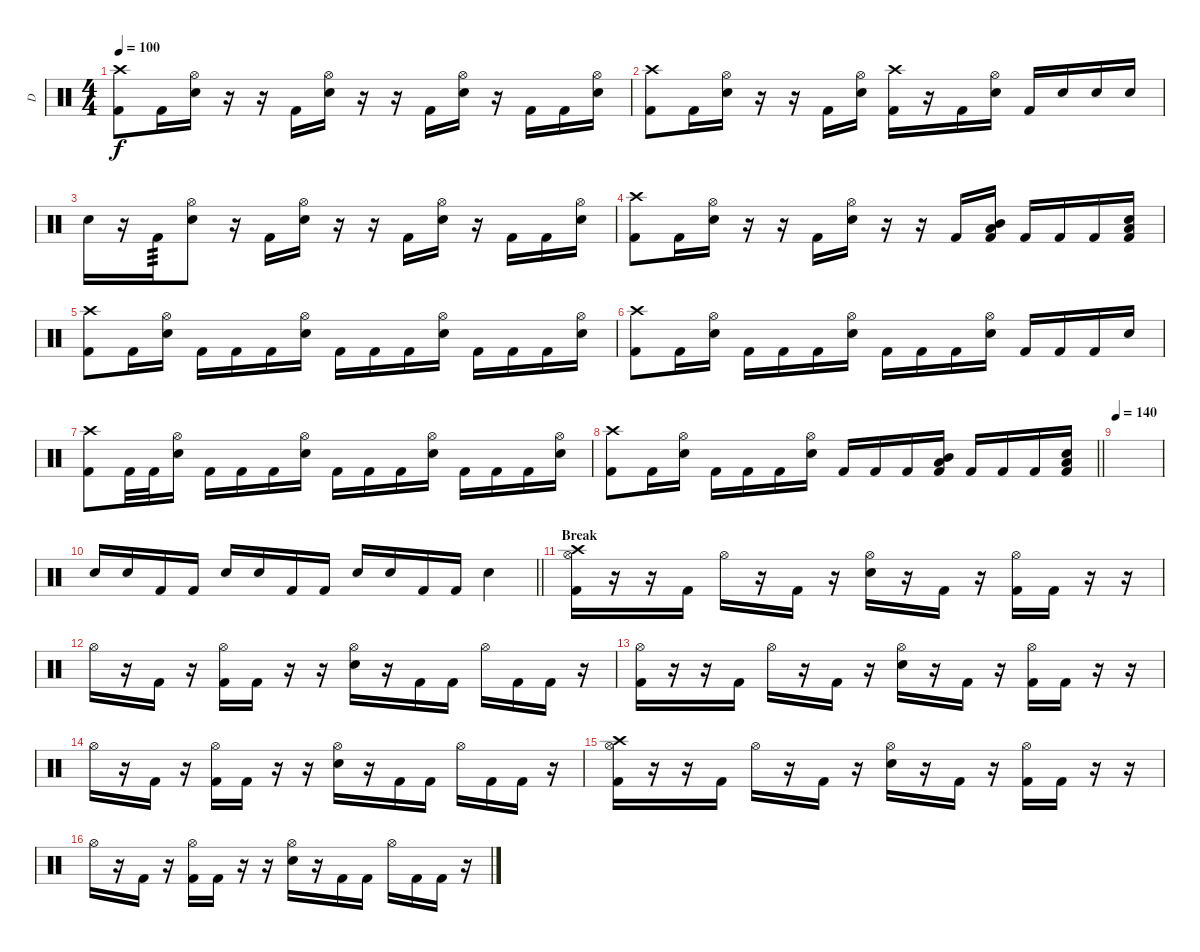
\track ("D" "D") {instrument percussion}
\staff {score}
\articulation defaults
\ts (4 4)
\tempo 100
\clef neutral
\ks c
("Crash high (hit)" "Kick (hit) 2").8{dy f} "Kick (hit) 2".16 ("Electric Snare (hit)" "Hi-Hat (open)").16 r.16 r.16 "Kick (hit) 2".16 ("Electric Snare (hit)" "Hi-Hat (open)").16 r.16 r.16 "Kick (hit) 2".16 ("Electric Snare (hit)" "Hi-Hat (open)").16 r.16 "Kick (hit) 2".16 "Kick (hit) 2".16 ("Electric Snare (hit)" "Hi-Hat (open)").16 |
("Crash high (hit)" "Kick (hit) 2").8 "Kick (hit) 2".16 ("Electric Snare (hit)" "Hi-Hat (open)").16 r.16 r.16 "Kick (hit) 2".16 ("Electric Snare (hit)" "Hi-Hat (open)").16 ("Crash high (hit)" "Kick (hit) 2").16 r.16 "Kick (hit) 2".16 ("Electric Snare (hit)" "Hi-Hat (open)").16 "Kick (hit) 2".16 "Electric Snare (hit)".16 "Electric Snare (hit)".16 "Electric Snare (hit)".16 |
"Electric Snare (hit)".16 r.16 "Kick (hit) 2".16{tp 3} ("Electric Snare (hit)" "Hi-Hat (open)").8 r.16 "Kick (hit) 2".16 ("Electric Snare (hit)" "Hi-Hat (open)").16 r.16 r.16 "Kick (hit) 2".16 ("Electric Snare (hit)" "Hi-Hat (open)").16 r.16 "Kick (hit) 2".16 "Kick (hit) 2".16 ("Electric Snare (hit)" "Hi-Hat (open)").16 |
("Crash high (hit)" "Kick (hit) 2").8 "Kick (hit) 2".16 ("Electric Snare (hit)" "Hi-Hat (open)").16 r.16 r.16 "Kick (hit) 2".16 ("Electric Snare (hit)" "Hi-Hat (open)").16 r.16 r.16 "Kick (hit) 2".16 ("Mid Tom (hit)" "Low Tom (hit)" "Kick (hit) 2").16 "Kick (hit) 2".16 "Kick (hit) 2".16 "Kick (hit) 2".16 ("Low Tom (hit)" "Electric Snare (hit)" "Kick (hit) 2").16 |
("Crash high (hit)" "Kick (hit) 2").8 "Kick (hit) 2".16 ("Electric Snare (hit)" "Hi-Hat (open)").16 "Kick (hit) 2".16 "Kick (hit) 2".16 "Kick (hit) 2".16 ("Electric Snare (hit)" "Hi-Hat (open)").16 "Kick (hit) 2".16 "Kick (hit) 2".16 "Kick (hit) 2".16 ("Electric Snare (hit)" "Hi-Hat (open)").16 "Kick (hit) 2".16 "Kick (hit) 2".16 "Kick (hit) 2".16 ("Electric Snare (hit)" "Hi-Hat (open)").16 |
("Crash high (hit)" "Kick (hit) 2").8 "Kick (hit) 2".16 ("Electric Snare (hit)" "Hi-Hat (open)").16 "Kick (hit) 2".16 "Kick (hit) 2".16 "Kick (hit) 2".16 ("Electric Snare (hit)" "Hi-Hat (open)").16 "Kick (hit) 2".16 "Kick (hit) 2".16 "Kick (hit) 2".16 ("Electric Snare (hit)" "Hi-Hat (open)").16 "Kick (hit) 2".16 "Kick (hit) 2".16 "Kick (hit) 2".16 "Electric Snare (hit)".16 |
("Crash high (hit)" "Kick (hit) 2").8 "Kick (hit) 2".32 "Kick (hit) 2".32 ("Electric Snare (hit)" "Hi-Hat (open)").16 "Kick (hit) 2".16 "Kick (hit) 2".16 "Kick (hit) 2".16 ("Electric Snare (hit)" "Hi-Hat (open)").16 "Kick (hit) 2".16 "Kick (hit) 2".16 "Kick (hit) 2".16 ("Electric Snare (hit)" "Hi-Hat (open)").16 "Kick (hit) 2".16 "Kick (hit) 2".16 "Kick (hit) 2".16 ("Electric Snare (hit)" "Hi-Hat (open)").16 |
\barLineRight lightlight
("Crash high (hit)" "Kick (hit) 2").8 "Kick (hit) 2".16 ("Electric Snare (hit)" "Hi-Hat (open)").16 "Kick (hit) 2".16 "Kick (hit) 2".16 "Kick (hit) 2".16 ("Electric Snare (hit)" "Hi-Hat (open)").16 "Kick (hit) 2".16 "Kick (hit) 2".16 "Kick (hit) 2".16 ("Mid Tom (hit)" "Low Tom (hit)" "Kick (hit) 2").16 "Kick (hit) 2".16 "Kick (hit) 2".16 "Kick (hit) 2".16 ("Low Tom (hit)" "Electric Snare (hit)" "Kick (hit) 2").16 |
\section ("" "")
\tempo 140
|
\barLineRight lightlight "Electric Snare (hit)".16 "Electric Snare (hit)".16 "Kick (hit) 2".16 "Kick (hit) 2".16 "Electric Snare (hit)".16 "Electric Snare (hit)".16 "Kick (hit) 2".16 "Kick (hit) 2".16 "Electric Snare (hit)".16 "Electric Snare (hit)".16 "Kick (hit) 2".16 "Kick (hit) 2".16 "Electric Snare (hit)".4
|
\section ("" "Break")
("Crash high (hit)" "Kick (hit) 2" "Hi-Hat (open)").16 r.16 r.16 "Kick (hit) 2".16 "Hi-Hat (open)".16 r.16 "Kick (hit) 2".16 r.16 ("Electric Snare (hit)" "Hi-Hat (open)").16 r.16 "Kick (hit) 2".16 r.16 ("Kick (hit) 2" "Hi-Hat (open)").16 "Kick (hit) 2".16 r.16 r.16 |
"Hi-Hat (open)".16 r.16 "Kick (hit) 2".16 r.16 ("Kick (hit) 2" "Hi-Hat (open)").16 "Kick (hit) 2".16 r.16 r.16 ("Electric Snare (hit)" "Hi-Hat (open)").16 r.16 "Kick (hit) 2".16 "Kick (hit) 2".16 "Hi-Hat (open)".16 "Kick (hit) 2".16 "Kick (hit) 2".16 r.16 |
("Kick (hit) 2" "Hi-Hat (open)").16 r.16 r.16 "Kick (hit) 2".16 "Hi-Hat (open)".16 r.16 "Kick (hit) 2".16 r.16 ("Electric Snare (hit)" "Hi-Hat (open)").16 r.16 "Kick (hit) 2".16 r.16 ("Kick (hit) 2" "Hi-Hat (open)").16 "Kick (hit) 2".16 r.16 r.16 |
"Hi-Hat (open)".16 r.16 "Kick (hit) 2".16 r.16 ("Kick (hit) 2" "Hi-Hat (open)").16 "Kick (hit) 2".16 r.16 r.16 ("Electric Snare (hit)" "Hi-Hat (open)").16 r.16 "Kick (hit) 2".16 "Kick (hit) 2".16 "Hi-Hat (open)".16 "Kick (hit) 2".16 "Kick (hit) 2".16 r.16 |
("Crash high (hit)" "Kick (hit) 2" "Hi-Hat (open)").16 r.16 r.16 "Kick (hit) 2".16 "Hi-Hat (open)".16 r.16 "Kick (hit) 2".16 r.16 ("Electric Snare (hit)" "Hi-Hat (open)").16 r.16 "Kick (hit) 2".16 r.16 ("Kick (hit) 2" "Hi-Hat (open)").16 "Kick (hit) 2".16 r.16 r.16 |
"Hi-Hat (open)".16 r.16 "Kick (hit) 2".16 r.16 ("Kick (hit) 2" "Hi-Hat (open)").16 "Kick (hit) 2".16 r.16 r.16 ("Electric Snare (hit)" "Hi-Hat (open)").16 r.16 "Kick (hit) 2".16 "Kick (hit) 2".16 "Hi-Hat (open)".16 "Kick (hit) 2".16 "Kick (hit) 2".16 r.16
